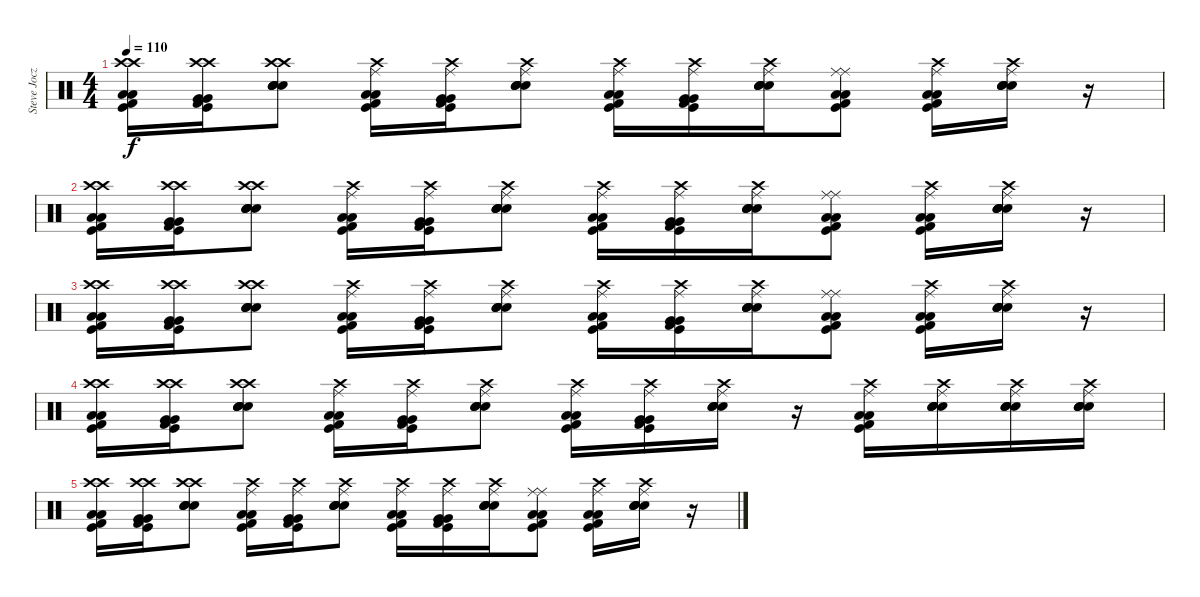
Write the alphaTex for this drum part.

\track ("Steve Jocz" "Steve Jocz") {instrument percussion}
\staff {score}
\articulation defaults
\ts (4 4)
\tempo 110
\clef neutral
\ks c
("Low Floor Tom (hit)" "Crash high (hit)" "Low Floor Tom (hit)" "Kick (hit)" "Crash high (hit)" "Kick (hit) 2").16{dy f} ("Very Low Tom (hit)" "Crash high (hit)" "Very Low Tom (hit)" "Kick (hit)" "Crash high (hit)" "Kick (hit) 2").16 ("Snare (hit) 2" "Crash high (hit)" "Snare (hit) 2" "Electric Snare (hit)" "Crash high (hit)" "Electric Snare (hit)").8 ("Low Floor Tom (hit)" "Ride (middle)" "Low Floor Tom (hit)" "Kick (hit)" "Crash high (hit)" "Kick (hit) 2").16 ("Very Low Tom (hit)" "Ride (middle)" "Very Low Tom (hit)" "Kick (hit)" "Crash high (hit)" "Kick (hit) 2").16 ("Snare (hit) 2" "Ride (middle)" "Snare (hit) 2" "Electric Snare (hit)" "Crash high (hit)" "Electric Snare (hit)").8 ("Low Floor Tom (hit)" "Ride (middle)" "Low Floor Tom (hit)" "Kick (hit)" "Crash high (hit)" "Kick (hit) 2").16 ("Very Low Tom (hit)" "Ride (middle)" "Very Low Tom (hit)" "Kick (hit)" "Crash high (hit)" "Kick (hit) 2").16 ("Snare (hit) 2" "Ride (middle)" "Snare (hit) 2" "Electric Snare (hit)" "Crash high (hit)" "Electric Snare (hit)").16 ("Low Floor Tom (hit)" "Ride (middle)" "Low Floor Tom (hit)" "Kick (hit)" "Ride (middle)" "Kick (hit) 2").8 ("Low Floor Tom (hit)" "Ride (middle)" "Low Floor Tom (hit)" "Kick (hit)" "Crash high (hit)" "Kick (hit) 2").16 ("Snare (hit) 2" "Ride (middle)" "Snare (hit) 2" "Electric Snare (hit)" "Crash high (hit)" "Electric Snare (hit)").16 r.16 |
("Low Floor Tom (hit)" "Crash high (hit)" "Low Floor Tom (hit)" "Kick (hit)" "Crash high (hit)" "Kick (hit) 2").16 ("Very Low Tom (hit)" "Crash high (hit)" "Very Low Tom (hit)" "Kick (hit)" "Crash high (hit)" "Kick (hit) 2").16 ("Snare (hit) 2" "Crash high (hit)" "Snare (hit) 2" "Electric Snare (hit)" "Crash high (hit)" "Electric Snare (hit)").8 ("Low Floor Tom (hit)" "Ride (middle)" "Low Floor Tom (hit)" "Kick (hit)" "Crash high (hit)" "Kick (hit) 2").16 ("Very Low Tom (hit)" "Ride (middle)" "Very Low Tom (hit)" "Kick (hit)" "Crash high (hit)" "Kick (hit) 2").16 ("Snare (hit) 2" "Ride (middle)" "Snare (hit) 2" "Electric Snare (hit)" "Crash high (hit)" "Electric Snare (hit)").8 ("Low Floor Tom (hit)" "Ride (middle)" "Low Floor Tom (hit)" "Kick (hit)" "Crash high (hit)" "Kick (hit) 2").16 ("Very Low Tom (hit)" "Ride (middle)" "Very Low Tom (hit)" "Kick (hit)" "Crash high (hit)" "Kick (hit) 2").16 ("Snare (hit) 2" "Ride (middle)" "Snare (hit) 2" "Electric Snare (hit)" "Crash high (hit)" "Electric Snare (hit)").16 ("Low Floor Tom (hit)" "Ride (middle)" "Low Floor Tom (hit)" "Kick (hit)" "Ride (middle)" "Kick (hit) 2").8 ("Low Floor Tom (hit)" "Ride (middle)" "Low Floor Tom (hit)" "Kick (hit)" "Crash high (hit)" "Kick (hit) 2").16 ("Snare (hit) 2" "Ride (middle)" "Snare (hit) 2" "Electric Snare (hit)" "Crash high (hit)" "Electric Snare (hit)").16 r.16 |
("Low Floor Tom (hit)" "Crash high (hit)" "Low Floor Tom (hit)" "Kick (hit)" "Crash high (hit)" "Kick (hit) 2").16 ("Very Low Tom (hit)" "Crash high (hit)" "Very Low Tom (hit)" "Kick (hit)" "Crash high (hit)" "Kick (hit) 2").16 ("Snare (hit) 2" "Crash high (hit)" "Snare (hit) 2" "Electric Snare (hit)" "Crash high (hit)" "Electric Snare (hit)").8 ("Low Floor Tom (hit)" "Ride (middle)" "Low Floor Tom (hit)" "Kick (hit)" "Crash high (hit)" "Kick (hit) 2").16 ("Very Low Tom (hit)" "Ride (middle)" "Very Low Tom (hit)" "Kick (hit)" "Crash high (hit)" "Kick (hit) 2").16 ("Snare (hit) 2" "Ride (middle)" "Snare (hit) 2" "Electric Snare (hit)" "Crash high (hit)" "Electric Snare (hit)").8 ("Low Floor Tom (hit)" "Ride (middle)" "Low Floor Tom (hit)" "Kick (hit)" "Crash high (hit)" "Kick (hit) 2").16 ("Very Low Tom (hit)" "Ride (middle)" "Very Low Tom (hit)" "Kick (hit)" "Crash high (hit)" "Kick (hit) 2").16 ("Snare (hit) 2" "Ride (middle)" "Snare (hit) 2" "Electric Snare (hit)" "Crash high (hit)" "Electric Snare (hit)").16 ("Low Floor Tom (hit)" "Ride (middle)" "Low Floor Tom (hit)" "Kick (hit)" "Ride (middle)" "Kick (hit) 2").8 ("Low Floor Tom (hit)" "Ride (middle)" "Low Floor Tom (hit)" "Kick (hit)" "Crash high (hit)" "Kick (hit) 2").16 ("Snare (hit) 2" "Ride (middle)" "Snare (hit) 2" "Electric Snare (hit)" "Crash high (hit)" "Electric Snare (hit)").16 r.16 |
("Low Floor Tom (hit)" "Crash high (hit)" "Low Floor Tom (hit)" "Kick (hit)" "Crash high (hit)" "Kick (hit) 2").16 ("Very Low Tom (hit)" "Crash high (hit)" "Very Low Tom (hit)" "Kick (hit)" "Crash high (hit)" "Kick (hit) 2").16 ("Snare (hit) 2" "Crash high (hit)" "Snare (hit) 2" "Electric Snare (hit)" "Crash high (hit)" "Electric Snare (hit)").8 ("Low Floor Tom (hit)" "Ride (middle)" "Low Floor Tom (hit)" "Kick (hit)" "Crash high (hit)" "Kick (hit) 2").16 ("Very Low Tom (hit)" "Ride (middle)" "Very Low Tom (hit)" "Kick (hit)" "Crash high (hit)" "Kick (hit) 2").16 ("Snare (hit) 2" "Ride (middle)" "Snare (hit) 2" "Electric Snare (hit)" "Crash high (hit)" "Electric Snare (hit)").8 ("Low Floor Tom (hit)" "Ride (middle)" "Low Floor Tom (hit)" "Kick (hit)" "Crash high (hit)" "Kick (hit) 2").16 ("Very Low Tom (hit)" "Ride (middle)" "Very Low Tom (hit)" "Kick (hit)" "Crash high (hit)" "Kick (hit) 2").16 ("Snare (hit) 2" "Ride (middle)" "Snare (hit) 2" "Electric Snare (hit)" "Crash high (hit)" "Electric Snare (hit)").16 r.16 ("Low Floor Tom (hit)" "Ride (middle)" "Low Floor Tom (hit)" "Kick (hit)" "Crash high (hit)" "Kick (hit) 2").16 ("Snare (hit) 2" "Ride (middle)" "Snare (hit) 2" "Electric Snare (hit)" "Crash high (hit)" "Electric Snare (hit)").16 ("Snare (hit) 2" "Ride (middle)" "Snare (hit) 2" "Electric Snare (hit)" "Crash high (hit)" "Electric Snare (hit)").16 ("Snare (hit) 2" "Ride (middle)" "Snare (hit) 2" "Electric Snare (hit)" "Crash high (hit)" "Electric Snare (hit)").16 |
("Low Floor Tom (hit)" "Crash high (hit)" "Low Floor Tom (hit)" "Kick (hit)" "Crash high (hit)" "Kick (hit) 2").16 ("Very Low Tom (hit)" "Crash high (hit)" "Very Low Tom (hit)" "Kick (hit)" "Crash high (hit)" "Kick (hit) 2").16 ("Snare (hit) 2" "Crash high (hit)" "Snare (hit) 2" "Electric Snare (hit)" "Crash high (hit)" "Electric Snare (hit)").8 ("Low Floor Tom (hit)" "Ride (middle)" "Low Floor Tom (hit)" "Kick (hit)" "Crash high (hit)" "Kick (hit) 2").16 ("Very Low Tom (hit)" "Ride (middle)" "Very Low Tom (hit)" "Kick (hit)" "Crash high (hit)" "Kick (hit) 2").16 ("Snare (hit) 2" "Ride (middle)" "Snare (hit) 2" "Electric Snare (hit)" "Crash high (hit)" "Electric Snare (hit)").8 ("Low Floor Tom (hit)" "Ride (middle)" "Low Floor Tom (hit)" "Kick (hit)" "Crash high (hit)" "Kick (hit) 2").16 ("Very Low Tom (hit)" "Ride (middle)" "Very Low Tom (hit)" "Kick (hit)" "Crash high (hit)" "Kick (hit) 2").16 ("Snare (hit) 2" "Ride (middle)" "Snare (hit) 2" "Electric Snare (hit)" "Crash high (hit)" "Electric Snare (hit)").16 ("Low Floor Tom (hit)" "Ride (middle)" "Low Floor Tom (hit)" "Kick (hit)" "Ride (middle)" "Kick (hit) 2").8 ("Low Floor Tom (hit)" "Ride (middle)" "Low Floor Tom (hit)" "Kick (hit)" "Crash high (hit)" "Kick (hit) 2").16 ("Snare (hit) 2" "Ride (middle)" "Snare (hit) 2" "Electric Snare (hit)" "Crash high (hit)" "Electric Snare (hit)").16 r.16
